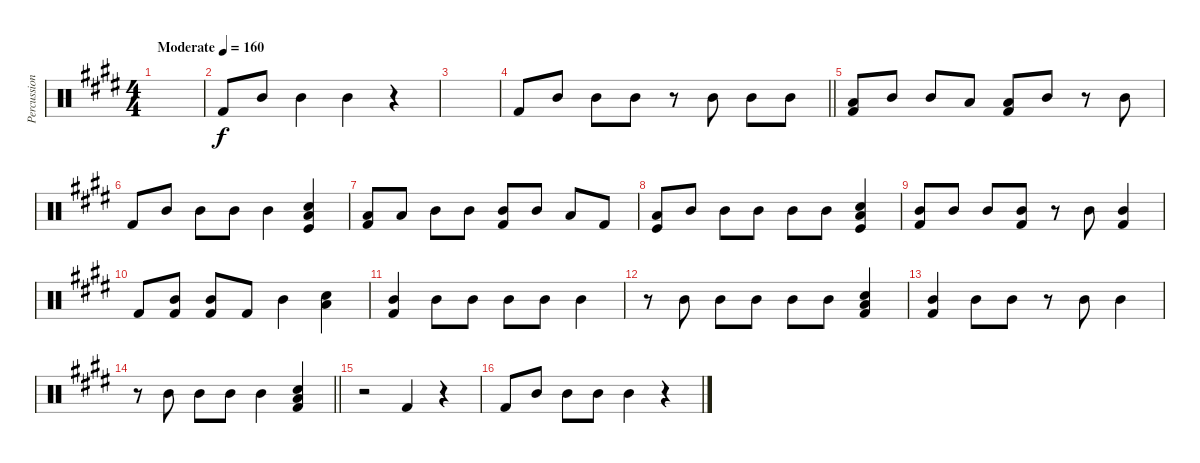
\track ("Percussion" "Percussion") {instrument percussion}
\staff {score}
\articulation defaults
\ts (4 4)
\tempo (160 "Moderate")
\clef neutral
\ks e
|
"Kick (hit) 2".8 "Mid Tom (hit)".8 "Mid Tom (hit)".4 "Mid Tom (hit)".4 r.4 |
|
\barLineRight lightlight "Kick (hit) 2".8 "Mid Tom (hit)".8 "Mid Tom (hit)".8 "Mid Tom (hit)".8
r.8 "Mid Tom (hit)".8 "Mid Tom (hit)".8 "Mid Tom (hit)".8 |
("Low Floor Tom (hit)" "Kick (hit) 2").8 "Mid Tom (hit)".8 "Mid Tom (hit)".8 "Low Floor Tom (hit)".8 ("Low Floor Tom (hit)" "Kick (hit) 2").8 "Mid Tom (hit)".8 r.8 "Mid Tom (hit)".8 |
"Kick (hit) 2".8 "Mid Tom (hit)".8 "Mid Tom (hit)".8 "Mid Tom (hit)".8 "Mid Tom (hit)".4 ("Snare (hit) 2" "Low Floor Tom (hit)" "Kick (hit)").4 |
("Low Floor Tom (hit)" "Kick (hit) 2").8 "Low Floor Tom (hit)".8 "Mid Tom (hit)".8 "Mid Tom (hit)".8 ("Mid Tom (hit)" "Kick (hit) 2").8 "Mid Tom (hit)".8 "Low Floor Tom (hit)".8 "Kick (hit) 2".8 |
("Low Floor Tom (hit)" "Kick (hit)").8 "Mid Tom (hit)".8 "Mid Tom (hit)".8 "Mid Tom (hit)".8 "Mid Tom (hit)".8 "Mid Tom (hit)".8 ("Snare (hit) 2" "Low Floor Tom (hit)" "Kick (hit)").4 |
("Mid Tom (hit)" "Kick (hit) 2").8 "Mid Tom (hit)".8 "Mid Tom (hit)".8 ("Mid Tom (hit)" "Kick (hit) 2").8 r.8 "Mid Tom (hit)".8 ("Mid Tom (hit)" "Kick (hit) 2").4 |
"Kick (hit) 2".8 ("Mid Tom (hit)" "Kick (hit) 2").8 ("Mid Tom (hit)" "Kick (hit) 2").8 "Kick (hit) 2".8 "Mid Tom (hit)".4 ("Snare (hit) 2" "Low Floor Tom (hit)").4 |
("Mid Tom (hit)" "Kick (hit) 2").4 "Mid Tom (hit)".8 "Mid Tom (hit)".8 "Mid Tom (hit)".8 "Mid Tom (hit)".8 "Mid Tom (hit)".4 |
r.8 "Mid Tom (hit)".8 "Mid Tom (hit)".8 "Mid Tom (hit)".8 "Mid Tom (hit)".8 "Mid Tom (hit)".8 ("Snare (hit) 2" "Low Floor Tom (hit)" "Kick (hit) 2").4 |
("Mid Tom (hit)" "Kick (hit) 2").4 "Mid Tom (hit)".8 "Mid Tom (hit)".8 r.8 "Mid Tom (hit)".8 "Mid Tom (hit)".4 |
\barLineRight lightlight
r.8 "Mid Tom (hit)".8 "Mid Tom (hit)".8 "Mid Tom (hit)".8 "Mid Tom (hit)".4 ("Snare (hit) 2" "Low Floor Tom (hit)" "Kick (hit) 2").4 |
r.2 "Kick (hit) 2".4 r.4 |
"Kick (hit) 2".8 "Mid Tom (hit)".8 "Mid Tom (hit)".8 "Mid Tom (hit)".8 "Mid Tom (hit)".4 r.4
